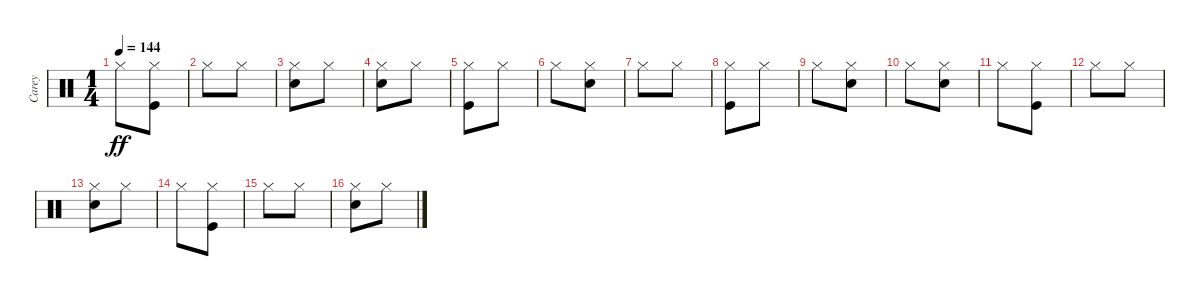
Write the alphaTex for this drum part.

\track ("Carey" "Carey") {instrument percussion}
\staff {score}
\articulation defaults
\ts (1 4)
\tempo 144
\clef neutral
\ks c "Hi-Hat (closed)".8{dy ff}
("Kick (hit)" "Hi-Hat (closed)").8 |
"Hi-Hat (closed)".8 "Hi-Hat (closed)".8 |
("Snare (hit) 2" "Hi-Hat (closed)").8 "Hi-Hat (closed)".8 |
("Snare (hit) 2" "Hi-Hat (closed)").8 "Hi-Hat (closed)".8 |
("Kick (hit)" "Hi-Hat (closed)").8 "Hi-Hat (closed)".8 |
"Hi-Hat (closed)".8 ("Snare (hit) 2" "Hi-Hat (closed)").8 |
"Hi-Hat (closed)".8 "Hi-Hat (closed)".8 |
("Kick (hit)" "Hi-Hat (closed)").8 "Hi-Hat (closed)".8 |
"Hi-Hat (closed)".8 ("Snare (hit) 2" "Hi-Hat (closed)").8 |
"Hi-Hat (closed)".8 ("Snare (hit) 2" "Hi-Hat (closed)").8 |
"Hi-Hat (closed)".8 ("Kick (hit)" "Hi-Hat (closed)").8 |
"Hi-Hat (closed)".8 "Hi-Hat (closed)".8 |
("Snare (hit) 2" "Hi-Hat (closed)").8 "Hi-Hat (closed)".8 |
"Hi-Hat (closed)".8 ("Kick (hit)" "Hi-Hat (closed)").8 |
"Hi-Hat (closed)".8 "Hi-Hat (closed)".8 |
("Snare (hit) 2" "Hi-Hat (closed)").8 "Hi-Hat (closed)".8
